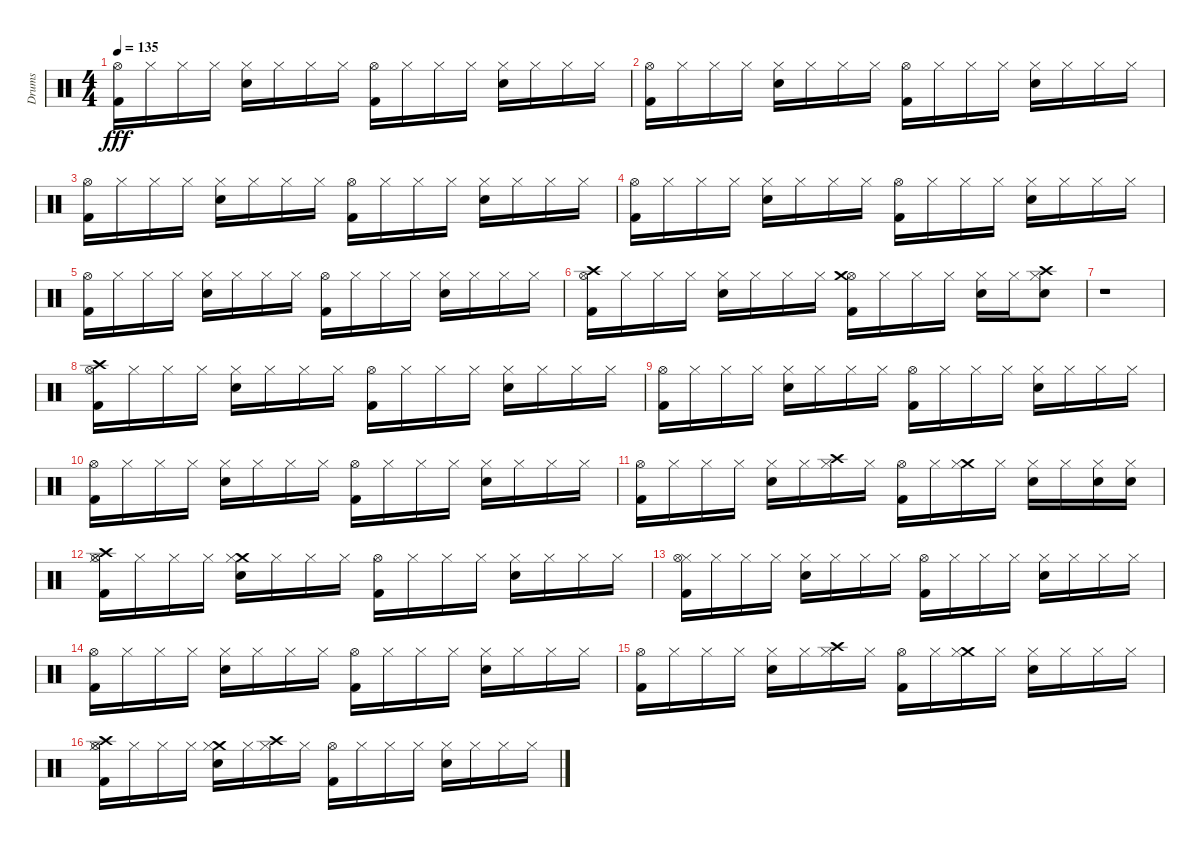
\track ("Drums" "Drums") {instrument percussion}
\staff {score}
\articulation defaults
\ts (4 4)
\tempo 135
\clef neutral
\ks c
("Hi-Hat (open)" "Kick (hit) 2").16{dy fff} "Hi-Hat (closed)".16 "Hi-Hat (closed)".16 "Hi-Hat (closed)".16 ("Snare (hit) 2" "Hi-Hat (closed)").16 "Hi-Hat (closed)".16 "Hi-Hat (closed)".16 "Hi-Hat (closed)".16 ("Kick (hit) 2" "Hi-Hat (open)").16 "Hi-Hat (closed)".16 "Hi-Hat (closed)".16 "Hi-Hat (closed)".16 ("Snare (hit) 2" "Hi-Hat (closed)").16 "Hi-Hat (closed)".16 "Hi-Hat (closed)".16 "Hi-Hat (closed)".16 |
("Hi-Hat (open)" "Kick (hit) 2").16 "Hi-Hat (closed)".16 "Hi-Hat (closed)".16 "Hi-Hat (closed)".16 ("Snare (hit) 2" "Hi-Hat (closed)").16 "Hi-Hat (closed)".16 "Hi-Hat (closed)".16 "Hi-Hat (closed)".16 ("Kick (hit) 2" "Hi-Hat (open)").16 "Hi-Hat (closed)".16 "Hi-Hat (closed)".16 "Hi-Hat (closed)".16 ("Snare (hit) 2" "Hi-Hat (closed)").16 "Hi-Hat (closed)".16 "Hi-Hat (closed)".16 "Hi-Hat (closed)".16 |
("Hi-Hat (open)" "Kick (hit) 2").16 "Hi-Hat (closed)".16 "Hi-Hat (closed)".16 "Hi-Hat (closed)".16 ("Snare (hit) 2" "Hi-Hat (closed)").16 "Hi-Hat (closed)".16 "Hi-Hat (closed)".16 "Hi-Hat (closed)".16 ("Kick (hit) 2" "Hi-Hat (open)").16 "Hi-Hat (closed)".16 "Hi-Hat (closed)".16 "Hi-Hat (closed)".16 ("Snare (hit) 2" "Hi-Hat (closed)").16 "Hi-Hat (closed)".16 "Hi-Hat (closed)".16 "Hi-Hat (closed)".16 |
("Hi-Hat (open)" "Kick (hit) 2").16 "Hi-Hat (closed)".16 "Hi-Hat (closed)".16 "Hi-Hat (closed)".16 ("Snare (hit) 2" "Hi-Hat (closed)").16 "Hi-Hat (closed)".16 "Hi-Hat (closed)".16 "Hi-Hat (closed)".16 ("Kick (hit) 2" "Hi-Hat (open)").16 "Hi-Hat (closed)".16 "Hi-Hat (closed)".16 "Hi-Hat (closed)".16 ("Snare (hit) 2" "Hi-Hat (closed)").16 "Hi-Hat (closed)".16 "Hi-Hat (closed)".16 "Hi-Hat (closed)".16 |
("Hi-Hat (open)" "Kick (hit) 2").16 "Hi-Hat (closed)".16 "Hi-Hat (closed)".16 "Hi-Hat (closed)".16 ("Snare (hit) 2" "Hi-Hat (closed)").16 "Hi-Hat (closed)".16 "Hi-Hat (closed)".16 "Hi-Hat (closed)".16 ("Kick (hit) 2" "Hi-Hat (open)").16 "Hi-Hat (closed)".16 "Hi-Hat (closed)".16 "Hi-Hat (closed)".16 ("Snare (hit) 2" "Hi-Hat (closed)").16 "Hi-Hat (closed)".16 "Hi-Hat (closed)".16 "Hi-Hat (closed)".16 |
("Crash high (hit)" "Hi-Hat (open)" "Kick (hit) 2").16 "Hi-Hat (closed)".16 "Hi-Hat (closed)".16 "Hi-Hat (closed)".16 ("Snare (hit) 2" "Hi-Hat (closed)").16 "Hi-Hat (closed)".16 "Hi-Hat (closed)".16 "Hi-Hat (closed)".16 ("Kick (hit) 2" "Hi-Hat (open)" "Crash medium (hit)").16 "Hi-Hat (closed)".16 "Hi-Hat (closed)".16 "Hi-Hat (closed)".16 ("Snare (hit) 2" "Hi-Hat (closed)").16 "Hi-Hat (closed)".16 ("Snare (hit) 2" "Crash high (hit)" "Hi-Hat (closed)").8 |
r.1 |
("Crash high (hit)" "Hi-Hat (open)" "Kick (hit) 2").16 "Hi-Hat (closed)".16 "Hi-Hat (closed)".16 "Hi-Hat (closed)".16 ("Snare (hit) 2" "Hi-Hat (closed)").16 "Hi-Hat (closed)".16 "Hi-Hat (closed)".16 "Hi-Hat (closed)".16 ("Kick (hit) 2" "Hi-Hat (open)").16 "Hi-Hat (closed)".16 "Hi-Hat (closed)".16 "Hi-Hat (closed)".16 ("Snare (hit) 2" "Hi-Hat (closed)").16 "Hi-Hat (closed)".16 "Hi-Hat (closed)".16 "Hi-Hat (closed)".16 |
("Hi-Hat (open)" "Kick (hit) 2").16 "Hi-Hat (closed)".16 "Hi-Hat (closed)".16 "Hi-Hat (closed)".16 ("Snare (hit) 2" "Hi-Hat (closed)").16 "Hi-Hat (closed)".16 "Hi-Hat (closed)".16 "Hi-Hat (closed)".16 ("Kick (hit) 2" "Hi-Hat (open)").16 "Hi-Hat (closed)".16 "Hi-Hat (closed)".16 "Hi-Hat (closed)".16 ("Snare (hit) 2" "Hi-Hat (closed)").16 "Hi-Hat (closed)".16 "Hi-Hat (closed)".16 "Hi-Hat (closed)".16 |
("Hi-Hat (open)" "Kick (hit) 2").16 "Hi-Hat (closed)".16 "Hi-Hat (closed)".16 "Hi-Hat (closed)".16 ("Snare (hit) 2" "Hi-Hat (closed)").16 "Hi-Hat (closed)".16 "Hi-Hat (closed)".16 "Hi-Hat (closed)".16 ("Kick (hit) 2" "Hi-Hat (open)").16 "Hi-Hat (closed)".16 "Hi-Hat (closed)".16 "Hi-Hat (closed)".16 ("Snare (hit) 2" "Hi-Hat (closed)").16 "Hi-Hat (closed)".16 "Hi-Hat (closed)".16 "Hi-Hat (closed)".16 |
("Hi-Hat (open)" "Kick (hit) 2").16 "Hi-Hat (closed)".16 "Hi-Hat (closed)".16 "Hi-Hat (closed)".16 ("Snare (hit) 2" "Hi-Hat (closed)").16 "Hi-Hat (closed)".16 ("Crash high (hit)" "Hi-Hat (closed)").16 "Hi-Hat (closed)".16 ("Kick (hit) 2" "Hi-Hat (open)").16 "Hi-Hat (closed)".16 ("Crash medium (hit)" "Hi-Hat (closed)").16 "Hi-Hat (closed)".16 ("Snare (hit) 2" "Hi-Hat (closed)").16 "Hi-Hat (closed)".16 ("Snare (hit) 2" "Hi-Hat (closed)").16 ("Snare (hit) 2" "Hi-Hat (closed)").16 |
("Hi-Hat (closed)" "Crash high (hit)" "Hi-Hat (open)" "Kick (hit) 2").16 "Hi-Hat (closed)".16 "Hi-Hat (closed)".16 "Hi-Hat (closed)".16 ("Crash medium (hit)" "Snare (hit) 2" "Hi-Hat (closed)").16 "Hi-Hat (closed)".16 "Hi-Hat (closed)".16 "Hi-Hat (closed)".16 ("Kick (hit) 2" "Hi-Hat (open)").16 "Hi-Hat (closed)".16 "Hi-Hat (closed)".16 "Hi-Hat (closed)".16 ("Snare (hit) 2" "Hi-Hat (closed)").16 "Hi-Hat (closed)".16 "Hi-Hat (closed)".16 "Hi-Hat (closed)".16 |
("Hi-Hat (closed)" "Hi-Hat (open)" "Kick (hit) 2").16 "Hi-Hat (closed)".16 "Hi-Hat (closed)".16 "Hi-Hat (closed)".16 ("Snare (hit) 2" "Hi-Hat (closed)").16 "Hi-Hat (closed)".16 "Hi-Hat (closed)".16 "Hi-Hat (closed)".16 ("Kick (hit) 2" "Hi-Hat (open)").16 "Hi-Hat (closed)".16 "Hi-Hat (closed)".16 "Hi-Hat (closed)".16 ("Snare (hit) 2" "Hi-Hat (closed)").16 "Hi-Hat (closed)".16 "Hi-Hat (closed)".16 "Hi-Hat (closed)".16 |
("Hi-Hat (open)" "Kick (hit) 2").16 "Hi-Hat (closed)".16 "Hi-Hat (closed)".16 "Hi-Hat (closed)".16 ("Snare (hit) 2" "Hi-Hat (closed)").16 "Hi-Hat (closed)".16 "Hi-Hat (closed)".16 "Hi-Hat (closed)".16 ("Kick (hit) 2" "Hi-Hat (open)").16 "Hi-Hat (closed)".16 "Hi-Hat (closed)".16 "Hi-Hat (closed)".16 ("Snare (hit) 2" "Hi-Hat (closed)").16 "Hi-Hat (closed)".16 "Hi-Hat (closed)".16 "Hi-Hat (closed)".16 |
("Hi-Hat (open)" "Kick (hit) 2").16 "Hi-Hat (closed)".16 "Hi-Hat (closed)".16 "Hi-Hat (closed)".16 ("Snare (hit) 2" "Hi-Hat (closed)").16 "Hi-Hat (closed)".16 ("Crash high (hit)" "Hi-Hat (closed)").16 "Hi-Hat (closed)".16 ("Kick (hit) 2" "Hi-Hat (open)").16 "Hi-Hat (closed)".16 ("Crash medium (hit)" "Hi-Hat (closed)").16 "Hi-Hat (closed)".16 ("Snare (hit) 2" "Hi-Hat (closed)").16 "Hi-Hat (closed)".16 "Hi-Hat (closed)".16 "Hi-Hat (closed)".16 |
("Hi-Hat (closed)" "Crash high (hit)" "Hi-Hat (open)" "Kick (hit) 2").16 "Hi-Hat (closed)".16 "Hi-Hat (closed)".16 "Hi-Hat (closed)".16 ("Crash medium (hit)" "Snare (hit) 2" "Hi-Hat (closed)").16 "Hi-Hat (closed)".16 ("Hi-Hat (closed)" "Crash high (hit)").16 "Hi-Hat (closed)".16 ("Kick (hit) 2" "Hi-Hat (open)").16 "Hi-Hat (closed)".16 "Hi-Hat (closed)".16 "Hi-Hat (closed)".16 ("Snare (hit) 2" "Hi-Hat (closed)").16 "Hi-Hat (closed)".16 "Hi-Hat (closed)".16 "Hi-Hat (closed)".16
